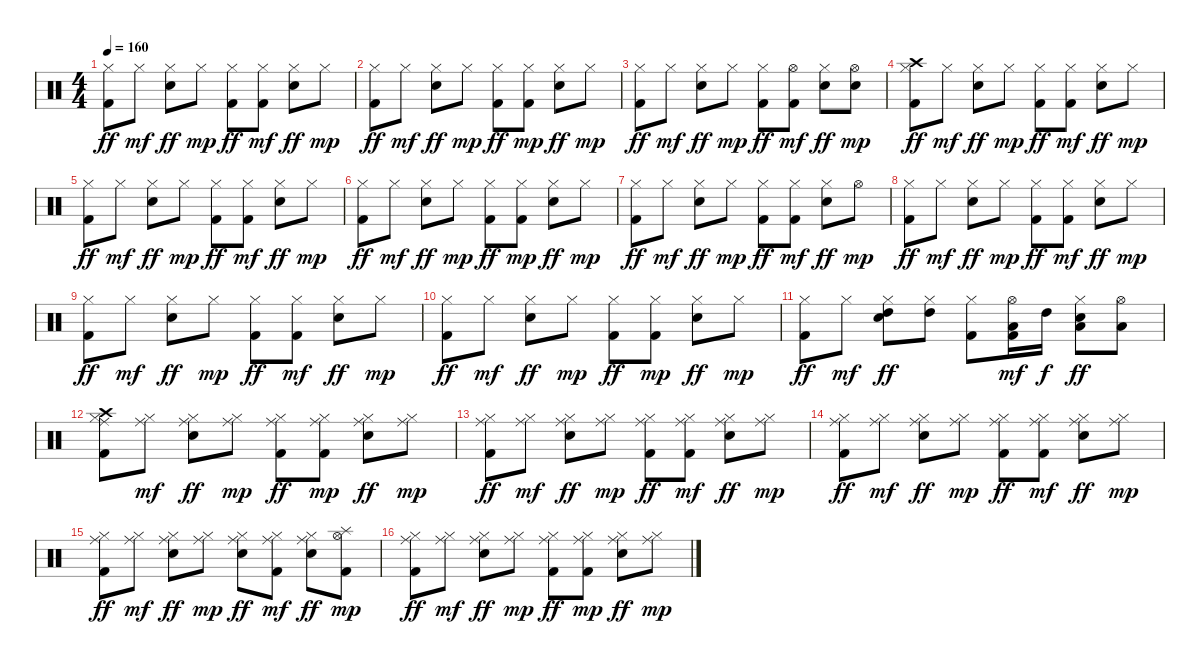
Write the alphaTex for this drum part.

\track "" {instrument percussion}
\staff {score}
\articulation defaults
\ts (4 4)
\tempo 160
\clef neutral
\ks c
("Hi-Hat (closed)" "Kick (hit) 2").8{dy ff} "Hi-Hat (closed)".8{dy mf} ("Snare (hit) 2" "Hi-Hat (closed)").8{dy ff} "Hi-Hat (closed)".8{dy mp} ("Hi-Hat (closed)" "Kick (hit) 2").8{dy ff} ("Hi-Hat (closed)" "Kick (hit) 2").8{dy mf} ("Hi-Hat (closed)" "Snare (hit) 2").8{dy ff} "Hi-Hat (closed)".8{dy mp} |
("Kick (hit) 2" "Hi-Hat (closed)").8{dy ff} "Hi-Hat (closed)".8{dy mf} ("Snare (hit) 2" "Hi-Hat (closed)").8{dy ff} "Hi-Hat (closed)".8{dy mp} ("Hi-Hat (closed)" "Kick (hit) 2").8{dy ff} ("Kick (hit) 2" "Hi-Hat (closed)").8{dy mp} ("Hi-Hat (closed)" "Snare (hit) 2").8{dy ff} "Hi-Hat (closed)".8{dy mp} |
("Hi-Hat (closed)" "Kick (hit) 2").8{dy ff} "Hi-Hat (closed)".8{dy mf} ("Snare (hit) 2" "Hi-Hat (closed)").8{dy ff} "Hi-Hat (closed)".8{dy mp} ("Hi-Hat (closed)" "Kick (hit) 2").8{dy ff} ("Hi-Hat (open)" "Kick (hit) 2").8{dy mf} ("Snare (hit) 2" "Hi-Hat (closed)").8{dy ff} ("Snare (hit) 2" "Hi-Hat (open)").8{dy mp} |
("Crash high (hit)" "Hi-Hat (closed)" "Kick (hit) 2").8{dy ff} "Hi-Hat (closed)".8{dy mf} ("Hi-Hat (closed)" "Snare (hit) 2").8{dy ff} "Hi-Hat (closed)".8{dy mp} ("Hi-Hat (closed)" "Kick (hit) 2").8{dy ff} ("Hi-Hat (closed)" "Kick (hit) 2").8{dy mf} ("Hi-Hat (closed)" "Snare (hit) 2").8{dy ff} "Hi-Hat (closed)".8{dy mp} |
("Hi-Hat (closed)" "Kick (hit) 2").8{dy ff} "Hi-Hat (closed)".8{dy mf} ("Snare (hit) 2" "Hi-Hat (closed)").8{dy ff} "Hi-Hat (closed)".8{dy mp} ("Hi-Hat (closed)" "Kick (hit) 2").8{dy ff} ("Hi-Hat (closed)" "Kick (hit) 2").8{dy mf} ("Hi-Hat (closed)" "Snare (hit) 2").8{dy ff} "Hi-Hat (closed)".8{dy mp} |
("Hi-Hat (closed)" "Kick (hit) 2").8{dy ff} "Hi-Hat (closed)".8{dy mf} ("Hi-Hat (closed)" "Snare (hit) 2").8{dy ff} "Hi-Hat (closed)".8{dy mp} ("Kick (hit) 2" "Hi-Hat (closed)").8{dy ff} ("Kick (hit) 2" "Hi-Hat (closed)").8{dy mp} ("Snare (hit) 2" "Hi-Hat (closed)").8{dy ff} "Hi-Hat (closed)".8{dy mp} |
("Hi-Hat (closed)" "Kick (hit) 2").8{dy ff} "Hi-Hat (closed)".8{dy mf} ("Snare (hit) 2" "Hi-Hat (closed)").8{dy ff} "Hi-Hat (closed)".8{dy mp} ("Hi-Hat (closed)" "Kick (hit) 2").8{dy ff} ("Hi-Hat (closed)" "Kick (hit) 2").8{dy mf} ("Snare (hit) 2" "Hi-Hat (closed)").8{dy ff} "Hi-Hat (open)".8{dy mp} |
("Kick (hit) 2" "Hi-Hat (closed)").8{dy ff} "Hi-Hat (closed)".8{dy mf} ("Hi-Hat (closed)" "Snare (hit) 2").8{dy ff} "Hi-Hat (closed)".8{dy mp} ("Kick (hit) 2" "Hi-Hat (closed)").8{dy ff} ("Hi-Hat (closed)" "Kick (hit) 2").8{dy mf} ("Snare (hit) 2" "Hi-Hat (closed)").8{dy ff} "Hi-Hat (closed)".8{dy mp} |
("Hi-Hat (closed)" "Kick (hit) 2").8{dy ff} "Hi-Hat (closed)".8{dy mf} ("Snare (hit) 2" "Hi-Hat (closed)").8{dy ff} "Hi-Hat (closed)".8{dy mp} ("Hi-Hat (closed)" "Kick (hit) 2").8{dy ff} ("Hi-Hat (closed)" "Kick (hit) 2").8{dy mf} ("Hi-Hat (closed)" "Snare (hit) 2").8{dy ff} "Hi-Hat (closed)".8{dy mp} |
("Kick (hit) 2" "Hi-Hat (closed)").8{dy ff} "Hi-Hat (closed)".8{dy mf} ("Snare (hit) 2" "Hi-Hat (closed)").8{dy ff} "Hi-Hat (closed)".8{dy mp} ("Kick (hit) 2" "Hi-Hat (closed)").8{dy ff} ("Kick (hit) 2" "Hi-Hat (closed)").8{dy mp} ("Snare (hit) 2" "Hi-Hat (closed)").8{dy ff} "Hi-Hat (closed)".8{dy mp} |
("Hi-Hat (closed)" "Kick (hit) 2").8{dy ff} "Hi-Hat (closed)".8{dy mf} ("Snare (hit) 2" "Hi-Hat (closed)" "High Tom (hit)").8{dy ff} ("Hi-Hat (closed)" "High Tom (hit)").8 ("Hi-Hat (closed)" "Kick (hit) 2").8 ("Hi-Hat (open)" "Low Tom (hit)" "Kick (hit) 2").16{dy mf} "High Tom (hit)".16{dy f} ("Snare (hit) 2" "Hi-Hat (closed)" "Low Tom (hit)").8{dy ff} ("Hi-Hat (open)" "Low Floor Tom (hit)").8 |
("Kick (hit) 2" "Hi-Hat (closed)" "Crash high (hit)" "Ride (middle)").8 ("Hi-Hat (closed)" "Ride (middle)").8{dy mf} ("Hi-Hat (closed)" "Snare (hit) 2" "Ride (middle)").8{dy ff} ("Ride (middle)" "Hi-Hat (closed)").8{dy mp} ("Ride (middle)" "Kick (hit) 2" "Hi-Hat (closed)").8{dy ff} ("Ride (middle)" "Kick (hit) 2" "Hi-Hat (closed)").8{dy mp} ("Snare (hit) 2" "Hi-Hat (closed)" "Ride (middle)").8{dy ff} ("Hi-Hat (closed)" "Ride (middle)").8{dy mp} |
("Ride (middle)" "Hi-Hat (closed)" "Kick (hit) 2").8{dy ff} ("Ride (middle)" "Hi-Hat (closed)").8{dy mf} ("Snare (hit) 2" "Ride (middle)" "Hi-Hat (closed)").8{dy ff} ("Ride (middle)" "Hi-Hat (closed)").8{dy mp} ("Hi-Hat (closed)" "Ride (middle)" "Kick (hit) 2").8{dy ff} ("Ride (middle)" "Hi-Hat (closed)" "Kick (hit) 2").8{dy mf} ("Ride (middle)" "Hi-Hat (closed)" "Snare (hit) 2").8{dy ff} ("Hi-Hat (closed)" "Ride (middle)").8{dy mp} |
("Kick (hit) 2" "Ride (middle)" "Hi-Hat (closed)").8{dy ff} ("Ride (middle)" "Hi-Hat (closed)").8{dy mf} ("Ride (middle)" "Snare (hit) 2" "Hi-Hat (closed)").8{dy ff} ("Hi-Hat (closed)" "Ride (middle)").8{dy mp} ("Kick (hit) 2" "Ride (middle)" "Hi-Hat (closed)").8{dy ff} ("Ride (middle)" "Hi-Hat (closed)" "Kick (hit) 2").8{dy mf} ("Hi-Hat (closed)" "Snare (hit) 2" "Ride (middle)").8{dy ff} ("Ride (middle)" "Hi-Hat (closed)").8{dy mp} |
("Ride (middle)" "Hi-Hat (closed)" "Kick (hit) 2").8{dy ff} ("Hi-Hat (closed)" "Ride (middle)").8{dy mf} ("Snare (hit) 2" "Hi-Hat (closed)" "Ride (middle)").8{dy ff} ("Ride (middle)" "Hi-Hat (closed)").8{dy mp} ("Ride (middle)" "Hi-Hat (closed)" "Snare (hit) 2").8{dy ff} ("Hi-Hat (closed)" "Ride (middle)" "Kick (hit) 2").8{dy mf} ("Hi-Hat (closed)" "Snare (hit) 2" "Ride (middle)").8{dy ff} ("Splash (hit)" "Kick (hit) 2" "Hi-Hat (open)").8{dy mp} |
("Kick (hit) 2" "Hi-Hat (closed)" "Ride (middle)").8{dy ff} ("Ride (middle)" "Hi-Hat (closed)").8{dy mf} ("Hi-Hat (closed)" "Snare (hit) 2" "Ride (middle)").8{dy ff} ("Ride (middle)" "Hi-Hat (closed)").8{dy mp} ("Ride (middle)" "Kick (hit) 2" "Hi-Hat (closed)").8{dy ff} ("Ride (middle)" "Kick (hit) 2" "Hi-Hat (closed)").8{dy mp} ("Snare (hit) 2" "Hi-Hat (closed)" "Ride (middle)").8{dy ff} ("Hi-Hat (closed)" "Ride (middle)").8{dy mp}
